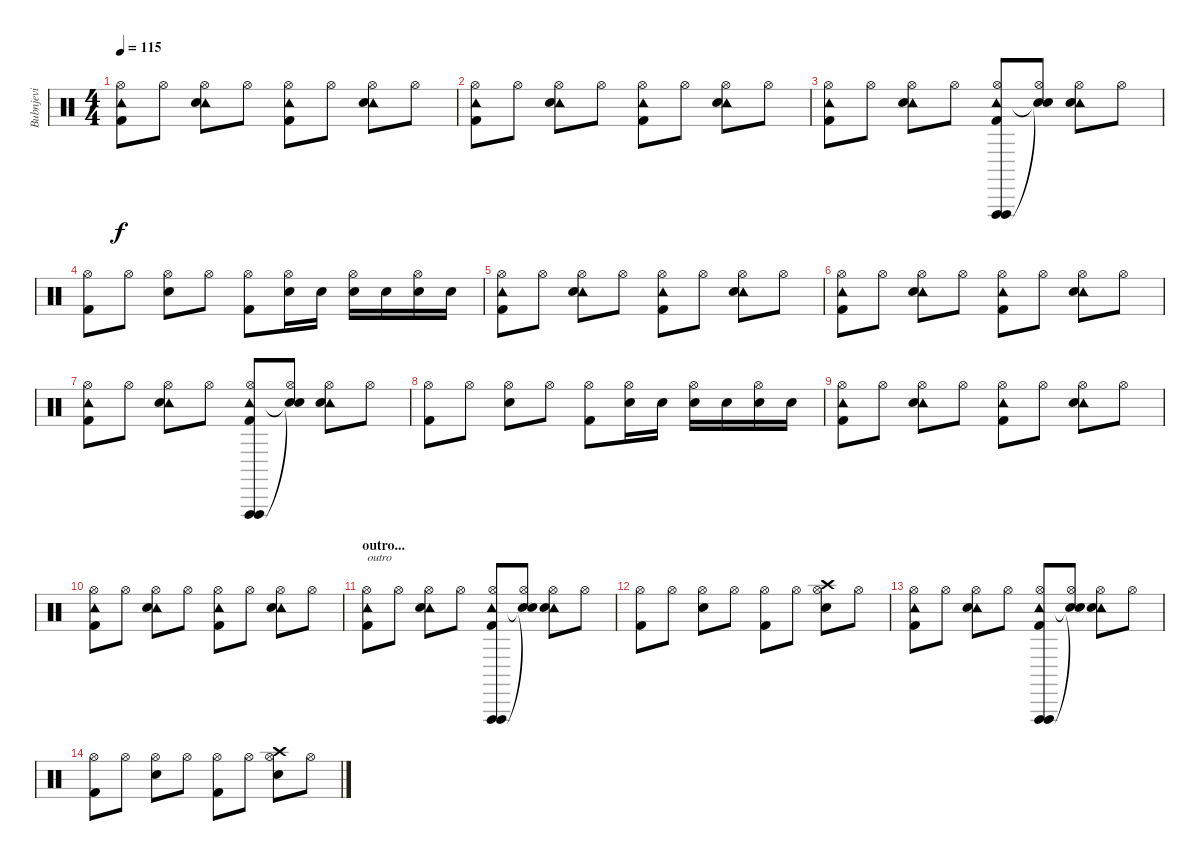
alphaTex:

\track ("Bubnjevi" "Bubnjevi") {instrument percussion}
\staff {score}
\articulation defaults
\ts (4 4)
\tempo 115
\clef neutral
\ks c
("Hi-Hat (open)" "Tambourine (hit)" "Kick (hit) 2").8{dy f} "Hi-Hat (open)".8 ("Hi-Hat (open)" "Tambourine (hit)" "Electric Snare (hit)").8 "Hi-Hat (open)".8 ("Hi-Hat (open)" "Tambourine (hit)" "Kick (hit) 2").8 "Hi-Hat (open)".8 ("Hi-Hat (open)" "Tambourine (hit)" "Electric Snare (hit)").8 "Hi-Hat (open)".8 |
("Hi-Hat (open)" "Tambourine (hit)" "Kick (hit) 2").8 "Hi-Hat (open)".8 ("Hi-Hat (open)" "Tambourine (hit)" "Electric Snare (hit)").8 "Hi-Hat (open)".8 ("Hi-Hat (open)" "Tambourine (hit)" "Kick (hit) 2").8 "Hi-Hat (open)".8 ("Hi-Hat (open)" "Tambourine (hit)" "Electric Snare (hit)").8 "Hi-Hat (open)".8 |
("Hi-Hat (open)" "Tambourine (hit)" "Kick (hit) 2").8 "Hi-Hat (open)".8 ("Hi-Hat (open)" "Tambourine (hit)" "Electric Snare (hit)").8 "Hi-Hat (open)".8 ("Hi-Hat (open)" "Tambourine (hit)" "Vibraslap (hit)" "Vibraslap (hit)" "Kick (hit) 2").8 ("Hi-Hat (open)" "Snare (hit)"{t} "Snare (hit)"{t}).8 ("Hi-Hat (open)" "Tambourine (hit)" "Electric Snare (hit)").8 "Hi-Hat (open)".8 |
("Hi-Hat (open)" "Kick (hit) 2").8 "Hi-Hat (open)".8 ("Hi-Hat (open)" "Electric Snare (hit)").8 "Hi-Hat (open)".8 ("Hi-Hat (open)" "Kick (hit) 2").8 ("Hi-Hat (open)" "Electric Snare (hit)").16 "Electric Snare (hit)".16 ("Hi-Hat (open)" "Electric Snare (hit)").16 "Electric Snare (hit)".16 ("Hi-Hat (open)" "Electric Snare (hit)").16 "Electric Snare (hit)".16 |
("Hi-Hat (open)" "Tambourine (hit)" "Kick (hit) 2").8 "Hi-Hat (open)".8 ("Hi-Hat (open)" "Tambourine (hit)" "Electric Snare (hit)").8 "Hi-Hat (open)".8 ("Hi-Hat (open)" "Tambourine (hit)" "Kick (hit) 2").8 "Hi-Hat (open)".8 ("Hi-Hat (open)" "Tambourine (hit)" "Electric Snare (hit)").8 "Hi-Hat (open)".8 |
("Hi-Hat (open)" "Tambourine (hit)" "Kick (hit) 2").8 "Hi-Hat (open)".8 ("Hi-Hat (open)" "Tambourine (hit)" "Electric Snare (hit)").8 "Hi-Hat (open)".8 ("Hi-Hat (open)" "Tambourine (hit)" "Kick (hit) 2").8 "Hi-Hat (open)".8 ("Hi-Hat (open)" "Tambourine (hit)" "Electric Snare (hit)").8 "Hi-Hat (open)".8 |
("Hi-Hat (open)" "Tambourine (hit)" "Kick (hit) 2").8 "Hi-Hat (open)".8 ("Hi-Hat (open)" "Tambourine (hit)" "Electric Snare (hit)").8 "Hi-Hat (open)".8 ("Hi-Hat (open)" "Tambourine (hit)" "Vibraslap (hit)" "Vibraslap (hit)" "Kick (hit) 2").8 ("Hi-Hat (open)" "Snare (hit)"{t} "Snare (hit)"{t}).8 ("Hi-Hat (open)" "Tambourine (hit)" "Electric Snare (hit)").8 "Hi-Hat (open)".8 |
("Hi-Hat (open)" "Kick (hit) 2").8 "Hi-Hat (open)".8 ("Hi-Hat (open)" "Electric Snare (hit)").8 "Hi-Hat (open)".8 ("Hi-Hat (open)" "Kick (hit) 2").8 ("Hi-Hat (open)" "Electric Snare (hit)").16 "Electric Snare (hit)".16 ("Hi-Hat (open)" "Electric Snare (hit)").16 "Electric Snare (hit)".16 ("Hi-Hat (open)" "Electric Snare (hit)").16 "Electric Snare (hit)".16 |
("Hi-Hat (open)" "Tambourine (hit)" "Kick (hit) 2").8 "Hi-Hat (open)".8 ("Hi-Hat (open)" "Tambourine (hit)" "Electric Snare (hit)").8 "Hi-Hat (open)".8 ("Hi-Hat (open)" "Tambourine (hit)" "Kick (hit) 2").8 "Hi-Hat (open)".8 ("Hi-Hat (open)" "Tambourine (hit)" "Electric Snare (hit)").8 "Hi-Hat (open)".8 |
("Hi-Hat (open)" "Tambourine (hit)" "Kick (hit) 2").8 "Hi-Hat (open)".8 ("Hi-Hat (open)" "Tambourine (hit)" "Electric Snare (hit)").8 "Hi-Hat (open)".8 ("Hi-Hat (open)" "Tambourine (hit)" "Kick (hit) 2").8 "Hi-Hat (open)".8 ("Hi-Hat (open)" "Tambourine (hit)" "Electric Snare (hit)").8 "Hi-Hat (open)".8 |
\section ("" "outro...")
("Hi-Hat (open)" "Tambourine (hit)" "Kick (hit) 2").8{txt "outro"} "Hi-Hat (open)".8 ("Hi-Hat (open)" "Tambourine (hit)" "Electric Snare (hit)").8 "Hi-Hat (open)".8 ("Hi-Hat (open)" "Tambourine (hit)" "Vibraslap (hit)" "Vibraslap (hit)" "Kick (hit) 2").8 ("Hi-Hat (open)" "Snare (hit)"{t} "Snare (hit)"{t}).8 ("Hi-Hat (open)" "Tambourine (hit)" "Electric Snare (hit)").8 "Hi-Hat (open)".8 |
("Hi-Hat (open)" "Kick (hit) 2").8 "Hi-Hat (open)".8 ("Hi-Hat (open)" "Electric Snare (hit)").8 "Hi-Hat (open)".8 ("Hi-Hat (open)" "Kick (hit) 2").8 "Hi-Hat (open)".8 ("Hi-Hat (open)" "Crash high (hit)" "Electric Snare (hit)").8 "Hi-Hat (open)".8 |
("Hi-Hat (open)" "Tambourine (hit)" "Kick (hit) 2").8 "Hi-Hat (open)".8 ("Hi-Hat (open)" "Tambourine (hit)" "Electric Snare (hit)").8 "Hi-Hat (open)".8 ("Hi-Hat (open)" "Tambourine (hit)" "Vibraslap (hit)" "Vibraslap (hit)" "Kick (hit) 2").8 ("Hi-Hat (open)" "Snare (hit)"{t} "Snare (hit)"{t}).8 ("Hi-Hat (open)" "Tambourine (hit)" "Electric Snare (hit)").8 "Hi-Hat (open)".8 |
("Hi-Hat (open)" "Kick (hit) 2").8 "Hi-Hat (open)".8 ("Hi-Hat (open)" "Electric Snare (hit)").8 "Hi-Hat (open)".8 ("Hi-Hat (open)" "Kick (hit) 2").8 "Hi-Hat (open)".8 ("Hi-Hat (open)" "Crash high (hit)" "Electric Snare (hit)").8 "Hi-Hat (open)".8
